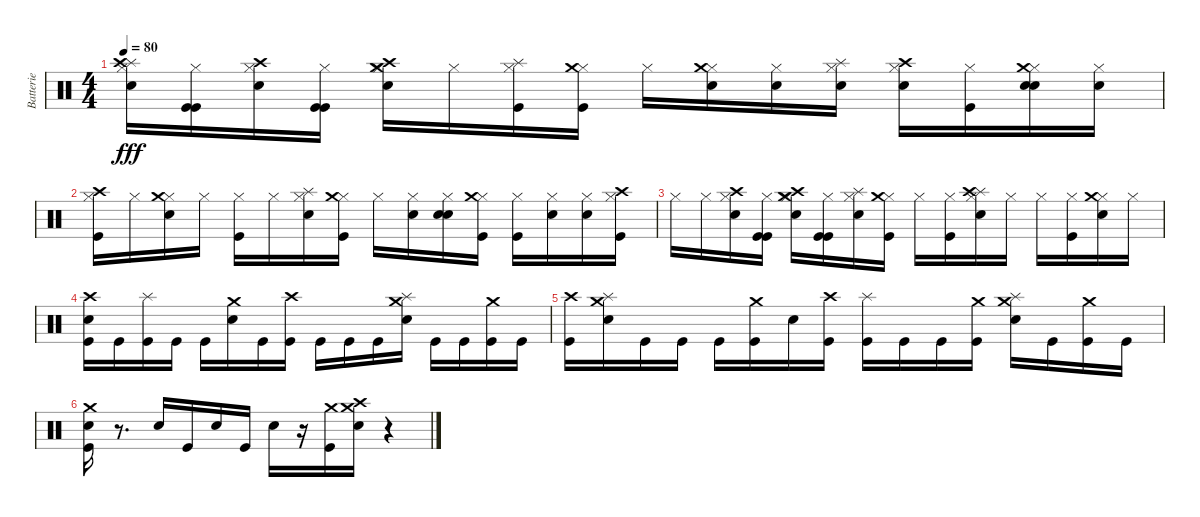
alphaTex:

\track ("Batterie" "Batterie") {instrument percussion}
\staff {score}
\articulation defaults
\ts (4 4)
\tempo 80
\clef neutral
\ks c
("Hi-Hat (closed)" "Metronome (bell)" "Splash (hit)" "Crash high (hit)").16{dy fff} ("Kick (hit)" "Hi-Hat (closed)" "Kick (hit)").16 ("Hi-Hat (closed)" "Metronome (bell)" "Crash high (hit)").16 ("Kick (hit)" "Hi-Hat (closed)" "Kick (hit)").16 ("Hi-Hat (closed)" "Metronome (bell)" "Crash medium (hit)" "Crash high (hit)").16 "Hi-Hat (closed)".16 ("Hi-Hat (closed)" "Kick (hit)" "Splash (hit)").16 ("Hi-Hat (closed)" "Kick (hit)" "Crash medium (hit)").16 "Hi-Hat (closed)".16 ("Hi-Hat (closed)" "Metronome (bell)" "Crash medium (hit)").16 ("Hi-Hat (closed)" "Metronome (bell)").16 ("Hi-Hat (closed)" "Metronome (bell)" "Splash (hit)").16 ("Hi-Hat (closed)" "Metronome (bell)" "Crash high (hit)").16 ("Hi-Hat (closed)" "Kick (hit)").16 ("Hi-Hat (closed)" "Metronome (bell)" "Crash medium (hit)" "Metronome (bell)").16 ("Hi-Hat (closed)" "Metronome (bell)").16 |
("Kick (hit)" "Hi-Hat (closed)" "Crash high (hit)").16 "Hi-Hat (closed)".16 ("Hi-Hat (closed)" "Metronome (bell)" "Crash medium (hit)").16 "Hi-Hat (closed)".16 ("Kick (hit)" "Hi-Hat (closed)").16 "Hi-Hat (closed)".16 ("Hi-Hat (closed)" "Metronome (bell)" "Splash (hit)").16 ("Hi-Hat (closed)" "Kick (hit)" "Crash medium (hit)").16 "Hi-Hat (closed)".16 ("Hi-Hat (closed)" "Metronome (bell)").16 ("Metronome (bell)" "Hi-Hat (closed)" "Metronome (bell)").16 ("Hi-Hat (closed)" "Kick (hit)" "Crash medium (hit)").16 ("Hi-Hat (closed)" "Kick (hit)").16 ("Hi-Hat (closed)" "Metronome (bell)").16 ("Hi-Hat (closed)" "Metronome (bell)").16 ("Hi-Hat (closed)" "Kick (hit)" "Crash high (hit)").16 |
"Hi-Hat (closed)".16 "Hi-Hat (closed)".16 ("Hi-Hat (closed)" "Metronome (bell)" "Crash high (hit)").16 ("Kick (hit)" "Hi-Hat (closed)" "Kick (hit)").16 ("Hi-Hat (closed)" "Metronome (bell)" "Crash medium (hit)" "Crash high (hit)").16 ("Kick (hit)" "Hi-Hat (closed)" "Kick (hit)").16 ("Hi-Hat (closed)" "Metronome (bell)" "Splash (hit)").16 ("Hi-Hat (closed)" "Kick (hit)" "Crash medium (hit)").16 "Hi-Hat (closed)".16 ("Hi-Hat (closed)" "Kick (hit)").16 ("Hi-Hat (closed)" "Metronome (bell)" "Splash (hit)" "Crash high (hit)").16 "Hi-Hat (closed)".16 "Hi-Hat (closed)".16 ("Hi-Hat (closed)" "Kick (hit)").16 ("Hi-Hat (closed)" "Metronome (bell)" "Crash medium (hit)").16 "Hi-Hat (closed)".16 |
("Kick (hit)" "Metronome (bell)" "Crash high (hit)").16 "Kick (hit)".16 ("Kick (hit)" "Splash (hit)").16 "Kick (hit)".16 "Kick (hit)".16 ("Metronome (bell)" "Crash medium (hit)").16 "Kick (hit)".16 ("Kick (hit)" "Crash high (hit)").16 "Kick (hit)".16 "Kick (hit)".16 "Kick (hit)".16 ("Metronome (bell)" "Crash medium (hit)" "Splash (hit)").16 "Kick (hit)".16 "Kick (hit)".16 ("Kick (hit)" "Crash medium (hit)").16 "Kick (hit)".16 |
("Kick (hit)" "Crash high (hit)").16 ("Metronome (bell)" "Crash medium (hit)" "Splash (hit)").16 "Kick (hit)".16 "Kick (hit)".16 "Kick (hit)".16 ("Kick (hit)" "Crash medium (hit)").16 "Metronome (bell)".16 ("Kick (hit)" "Crash high (hit)").16 ("Kick (hit)" "Splash (hit)").16 "Kick (hit)".16 "Kick (hit)".16 ("Kick (hit)" "Crash medium (hit)").16 ("Metronome (bell)" "Crash medium (hit)" "Splash (hit)").16 "Kick (hit)".16 ("Kick (hit)" "Crash medium (hit)").16 "Kick (hit)".16 |
("Kick (hit)" "Metronome (bell)" "Crash medium (hit)").16 r.8{d} "Metronome (bell)".16 "Kick (hit)".16 "Metronome (bell)".16 "Kick (hit)".16 "Metronome (bell)".16 r.16 ("Kick (hit)" "Crash medium (hit)").16 ("Crash medium (hit)" "Crash high (hit)" "Metronome (bell)").16 r.4
